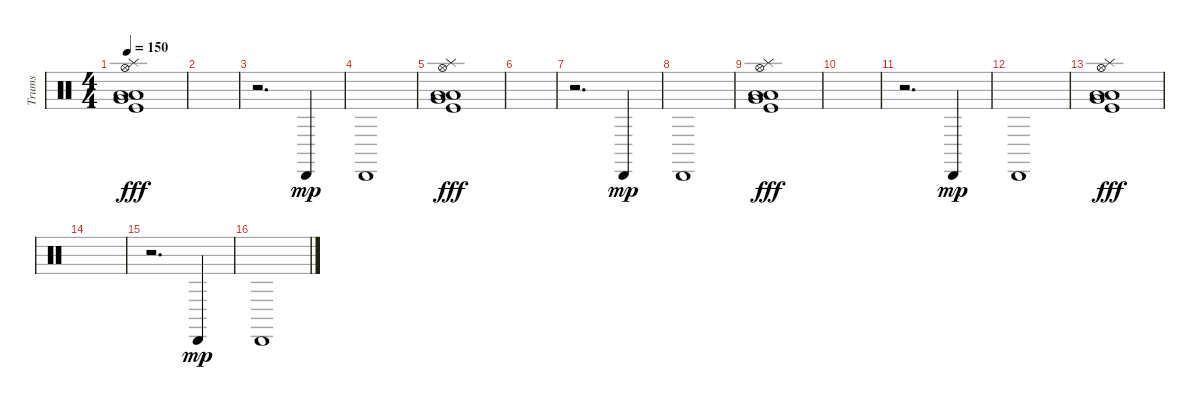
\track ("Trums" "Trums") {instrument percussion}
\staff {score}
\articulation defaults
\ts (4 4)
\tempo 150
\clef neutral
\ks c
("Splash (hit)" "Hi-Hat (open)" "Low Floor Tom (hit)" "Low Floor Tom (hit)" "Very Low Tom (hit)" "Kick (hit)").1{dy fff} |
|
r.2{d} "Cabasa (hit)".4{dy mp} |
"Cabasa (hit)".1 |
("Splash (hit)" "Hi-Hat (open)" "Low Floor Tom (hit)" "Low Floor Tom (hit)" "Very Low Tom (hit)" "Kick (hit)").1{dy fff} |
|
r.2{d} "Cabasa (hit)".4{dy mp} |
"Cabasa (hit)".1 |
("Splash (hit)" "Hi-Hat (open)" "Low Floor Tom (hit)" "Low Floor Tom (hit)" "Very Low Tom (hit)" "Kick (hit)").1{dy fff} |
|
r.2{d} "Cabasa (hit)".4{dy mp} |
"Cabasa (hit)".1 |
("Splash (hit)" "Hi-Hat (open)" "Low Floor Tom (hit)" "Low Floor Tom (hit)" "Very Low Tom (hit)" "Kick (hit)").1{dy fff} |
|
r.2{d} "Cabasa (hit)".4{dy mp} |
"Cabasa (hit)".1
